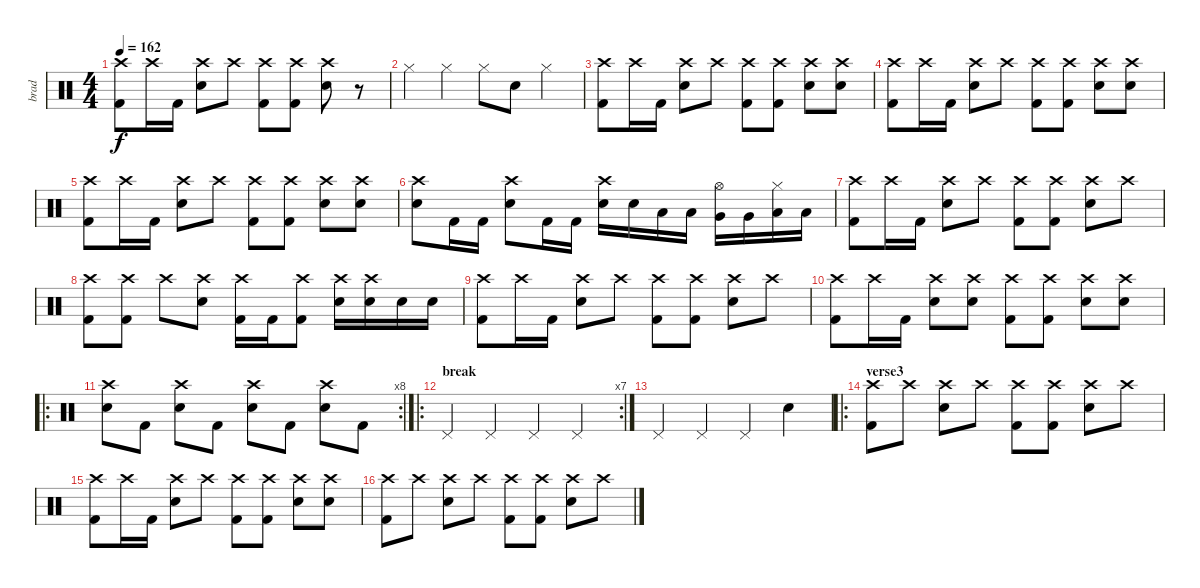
\track ("brad" "brad") {instrument percussion}
\staff {score}
\articulation defaults
\ts (4 4)
\tempo 162
\clef neutral
\ks c
("Crash high (hit)" "Kick (hit) 2").8{dy f} "Crash high (hit)".16 "Kick (hit) 2".16 ("Crash high (hit)" "Electric Snare (hit)").8 "Crash high (hit)".8 ("Crash high (hit)" "Kick (hit) 2").8 ("Crash high (hit)" "Kick (hit) 2").8 ("Crash high (hit)" "Electric Snare (hit)").8 r.8 |
"Hi-Hat (closed)".4 "Hi-Hat (closed)".4 "Hi-Hat (closed)".8 "Electric Snare (hit)".8 "Hi-Hat (closed)".4 |
("Crash high (hit)" "Kick (hit) 2").8 "Crash high (hit)".16 "Kick (hit) 2".16 ("Crash high (hit)" "Electric Snare (hit)").8 "Crash high (hit)".8 ("Crash high (hit)" "Kick (hit) 2").8 ("Crash high (hit)" "Kick (hit) 2").8 ("Crash high (hit)" "Electric Snare (hit)").8 ("Crash high (hit)" "Electric Snare (hit)").8 |
("Crash high (hit)" "Kick (hit) 2").8 "Crash high (hit)".16 "Kick (hit) 2".16 ("Crash high (hit)" "Electric Snare (hit)").8 "Crash high (hit)".8 ("Crash high (hit)" "Kick (hit) 2").8 ("Crash high (hit)" "Kick (hit) 2").8 ("Crash high (hit)" "Electric Snare (hit)").8 ("Crash high (hit)" "Electric Snare (hit)").8 |
("Crash high (hit)" "Kick (hit) 2").8 "Crash high (hit)".16 "Kick (hit) 2".16 ("Crash high (hit)" "Electric Snare (hit)").8 "Crash high (hit)".8 ("Crash high (hit)" "Kick (hit) 2").8 ("Crash high (hit)" "Kick (hit) 2").8 ("Crash high (hit)" "Electric Snare (hit)").8 ("Crash high (hit)" "Electric Snare (hit)").8 |
("Crash high (hit)" "Electric Snare (hit)").8 "Kick (hit) 2".16 "Kick (hit) 2".16 ("Crash high (hit)" "Electric Snare (hit)").8 "Kick (hit) 2".16 "Kick (hit) 2".16 ("Crash high (hit)" "Electric Snare (hit)").16 "Electric Snare (hit)".16 "Low Tom (hit)".16 "Low Tom (hit)".16 ("Hi-Hat (open)" "Very Low Tom (hit)").16 "Very Low Tom (hit)".16 ("Hi-Hat (closed)" "Low Floor Tom (hit)").16 "Low Floor Tom (hit)".16 |
("Crash high (hit)" "Kick (hit) 2").8 "Crash high (hit)".16 "Kick (hit) 2".16 ("Crash high (hit)" "Electric Snare (hit)").8 "Crash high (hit)".8 ("Crash high (hit)" "Kick (hit) 2").8 ("Crash high (hit)" "Kick (hit) 2").8 ("Crash high (hit)" "Electric Snare (hit)").8 "Crash high (hit)".8 |
("Crash high (hit)" "Kick (hit) 2").8 ("Crash high (hit)" "Kick (hit) 2").8 "Crash high (hit)".8 ("Crash high (hit)" "Electric Snare (hit)").8 ("Crash high (hit)" "Kick (hit) 2").16 "Kick (hit) 2".16 ("Crash high (hit)" "Kick (hit) 2").8 ("Crash high (hit)" "Electric Snare (hit)").16 ("Crash high (hit)" "Electric Snare (hit)").16 "Electric Snare (hit)".16 "Electric Snare (hit)".16 |
("Crash high (hit)" "Kick (hit) 2").8 "Crash high (hit)".16 "Kick (hit) 2".16 ("Crash high (hit)" "Electric Snare (hit)").8 "Crash high (hit)".8 ("Crash high (hit)" "Kick (hit) 2").8 ("Crash high (hit)" "Kick (hit) 2").8 ("Crash high (hit)" "Electric Snare (hit)").8 "Crash high (hit)".8 |
("Crash high (hit)" "Kick (hit) 2").8 "Crash high (hit)".16 "Kick (hit) 2".16 ("Crash high (hit)" "Electric Snare (hit)").8 ("Crash high (hit)" "Electric Snare (hit)").8 ("Crash high (hit)" "Kick (hit) 2").8 ("Crash high (hit)" "Kick (hit) 2").8 ("Crash high (hit)" "Electric Snare (hit)").8 ("Crash high (hit)" "Electric Snare (hit)").8 |
\ro
\rc 8
("Crash high (hit)" "Electric Snare (hit)").8 "Kick (hit) 2".8 ("Crash high (hit)" "Electric Snare (hit)").8 "Kick (hit) 2".8 ("Crash high (hit)" "Electric Snare (hit)").8 "Kick (hit) 2".8 ("Crash high (hit)" "Electric Snare (hit)").8 "Kick (hit) 2".8 |
\ro
\rc 7
\section ("" "break")
"Pedal Hi-Hat (hit)".4 "Pedal Hi-Hat (hit)".4 "Pedal Hi-Hat (hit)".4 "Pedal Hi-Hat (hit)".4 |
"Pedal Hi-Hat (hit)".4 "Pedal Hi-Hat (hit)".4 "Pedal Hi-Hat (hit)".4 "Electric Snare (hit)".4 |
\ro
\section ("" "verse3")
("Crash high (hit)" "Kick (hit) 2").8 "Crash high (hit)".8 ("Crash high (hit)" "Electric Snare (hit)").8 "Crash high (hit)".8 ("Crash high (hit)" "Kick (hit) 2").8 ("Crash high (hit)" "Kick (hit) 2").8 ("Crash high (hit)" "Electric Snare (hit)").8 "Crash high (hit)".8 |
("Crash high (hit)" "Kick (hit) 2").8 "Crash high (hit)".16 "Kick (hit) 2".16 ("Crash high (hit)" "Electric Snare (hit)").8 "Crash high (hit)".8 ("Crash high (hit)" "Kick (hit) 2").8 ("Crash high (hit)" "Kick (hit) 2").8 ("Crash high (hit)" "Electric Snare (hit)").8 ("Crash high (hit)" "Electric Snare (hit)").8 |
("Crash high (hit)" "Kick (hit) 2").8 "Crash high (hit)".8 ("Crash high (hit)" "Electric Snare (hit)").8 "Crash high (hit)".8 ("Crash high (hit)" "Kick (hit) 2").8 ("Crash high (hit)" "Kick (hit) 2").8 ("Crash high (hit)" "Electric Snare (hit)").8 "Crash high (hit)".8
